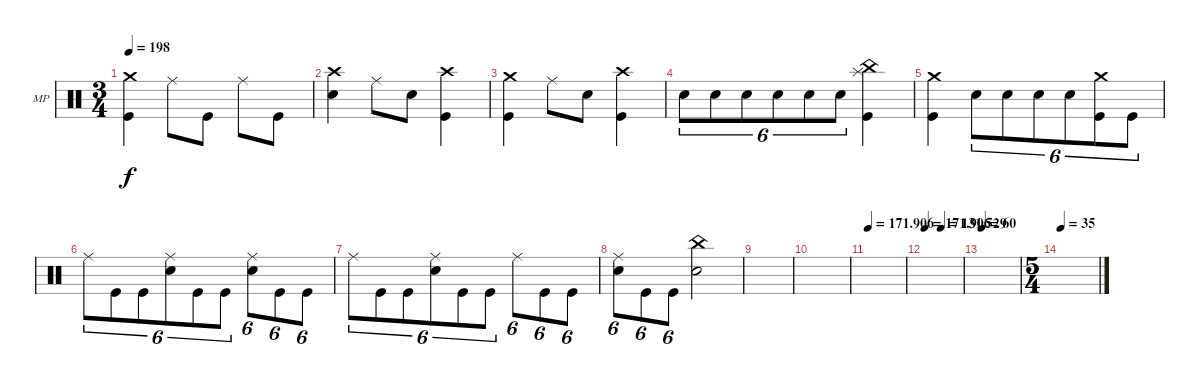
\defaultSystemsLayout 4
\bracketExtendMode groupsimilarinstruments
\firstSystemTrackNameOrientation horizontal
\otherSystemsTrackNameOrientation horizontal
\track ("Mike Portnoy" "MP") {instrument percussion}
\staff {score}
\articulation defaults
\ts (3 4)
\tempo 198
\clef neutral
\ks c
("Crash medium (hit)" "Kick (hit)").4{dy f} "Ride (middle)".8 "Kick (hit)".8 "Ride (middle)".8 "Kick (hit)".8 |
("Crash high (hit)" "Snare (hit) 2").4 "Ride (middle)".8 "Snare (hit) 2".8 ("Crash high (hit)" "Kick (hit)").4 |
("Crash medium (hit)" "Kick (hit)").4 "Ride (middle)".8 "Snare (hit) 2".8 ("Crash high (hit)" "Kick (hit)").4 |
"Snare (hit) 2".8{tu (6 4)} "Snare (hit) 2".8{tu (6 4)} "Snare (hit) 2".8{tu (6 4)} "Snare (hit) 2".8{tu (6 4)} "Snare (hit) 2".8{tu (6 4)} "Snare (hit) 2".8{tu (6 4)} ("China (hit)" "Splash (hit)" "Kick (hit)").4 |
("Crash medium (hit)" "Kick (hit)").4 "Snare (hit) 2".8{tu (6 4)} "Snare (hit) 2".8{tu (6 4)} "Snare (hit) 2".8{tu (6 4)} "Snare (hit) 2".8{tu (6 4)} ("Crash medium (hit)" "Kick (hit)").8{tu (6 4)} "Kick (hit)".8{tu (6 4)} |
"Ride (middle)".8{tu (6 4)} "Kick (hit)".8{tu (6 4)} "Kick (hit)".8{tu (6 4)} ("Ride (middle)" "Snare (hit) 2").8{tu (6 4)} "Kick (hit)".8{tu (6 4)} "Kick (hit)".8{tu (6 4)} ("Ride (middle)" "Snare (hit) 2").8{tu (6 4)} "Kick (hit)".8{tu (6 4)} "Kick (hit)".8{tu (6 4)} |
"Ride (middle)".8{tu (6 4)} "Kick (hit)".8{tu (6 4)} "Kick (hit)".8{tu (6 4)} ("Ride (middle)" "Snare (hit) 2").8{tu (6 4)} "Kick (hit)".8{tu (6 4)} "Kick (hit)".8{tu (6 4)} "Ride (middle)".8{tu (6 4)} "Kick (hit)".8{tu (6 4)} "Kick (hit)".8{tu (6 4)} |
("Ride (middle)" "Snare (hit) 2").8{tu (6 4)} "Kick (hit)".8{tu (6 4)} "Kick (hit)".8{tu (6 4)} ("China (hit)" "Snare (hit) 2").2 |
|
|
\tempo
171.906 |
\tempo
171.906
\tempo (131.529 0.43125)
|
\tempo 60
|
\ts (5 4)
\tempo 35
